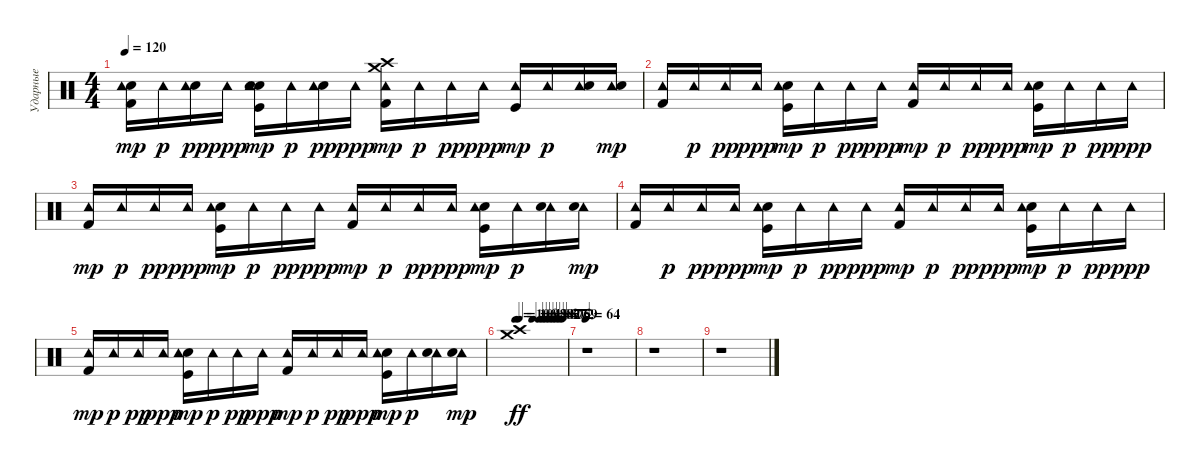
\track ("Ударные" "Ударные") {instrument percussion}
\staff {score}
\articulation defaults
\ts (4 4)
\tempo 120
\clef neutral
\ks c
("Electric Snare (hit)" "Kick (hit) 2" "Tambourine (hit)").16{dy mp} "Tambourine (hit)".16{dy p} ("Electric Snare (hit)" "Tambourine (hit)").16{dy pp} "Tambourine (hit)".16{dy ppp} ("Electric Snare (hit)" "Kick (hit)" "Snare (hit) 2" "Tambourine (hit)").16{dy mp} "Tambourine (hit)".16{dy p} ("Electric Snare (hit)" "Tambourine (hit)").16{dy pp} "Tambourine (hit)".16{dy ppp} ("Crash medium (hit)" "Crash high (hit)" "Kick (hit) 2" "Tambourine (hit)").16{dy mp} "Tambourine (hit)".16{dy p} "Tambourine (hit)".16{dy pp} "Tambourine (hit)".16{dy ppp} ("Kick (hit)" "Tambourine (hit)").16{dy mp} "Tambourine (hit)".16{dy p} ("Tambourine (hit)" "Electric Snare (hit)").16 ("Tambourine (hit)" "Electric Snare (hit)").16{dy mp} |
("Kick (hit) 2" "Tambourine (hit)").16 "Tambourine (hit)".16{dy p} "Tambourine (hit)".16{dy pp} "Tambourine (hit)".16{dy ppp} ("Kick (hit)" "Snare (hit) 2" "Tambourine (hit)").16{dy mp} "Tambourine (hit)".16{dy p} "Tambourine (hit)".16{dy pp} "Tambourine (hit)".16{dy ppp} ("Kick (hit) 2" "Tambourine (hit)").16{dy mp} "Tambourine (hit)".16{dy p} "Tambourine (hit)".16{dy pp} "Tambourine (hit)".16{dy ppp} ("Kick (hit)" "Snare (hit) 2" "Tambourine (hit)").16{dy mp} "Tambourine (hit)".16{dy p} "Tambourine (hit)".16{dy pp} "Tambourine (hit)".16{dy ppp} |
("Kick (hit) 2" "Tambourine (hit)").16{dy mp} "Tambourine (hit)".16{dy p} "Tambourine (hit)".16{dy pp} "Tambourine (hit)".16{dy ppp} ("Kick (hit)" "Snare (hit) 2" "Tambourine (hit)").16{dy mp} "Tambourine (hit)".16{dy p} "Tambourine (hit)".16{dy pp} "Tambourine (hit)".16{dy ppp} ("Kick (hit) 2" "Tambourine (hit)").16{dy mp} "Tambourine (hit)".16{dy p} "Tambourine (hit)".16{dy pp} "Tambourine (hit)".16{dy ppp} ("Kick (hit)" "Snare (hit) 2" "Tambourine (hit)").16{dy mp} "Tambourine (hit)".16{dy p} ("Tambourine (hit)" "Electric Snare (hit)").16 ("Tambourine (hit)" "Electric Snare (hit)").16{dy mp} |
("Kick (hit) 2" "Tambourine (hit)").16 "Tambourine (hit)".16{dy p} "Tambourine (hit)".16{dy pp} "Tambourine (hit)".16{dy ppp} ("Kick (hit)" "Snare (hit) 2" "Tambourine (hit)").16{dy mp} "Tambourine (hit)".16{dy p} "Tambourine (hit)".16{dy pp} "Tambourine (hit)".16{dy ppp} ("Kick (hit) 2" "Tambourine (hit)").16{dy mp} "Tambourine (hit)".16{dy p} "Tambourine (hit)".16{dy pp} "Tambourine (hit)".16{dy ppp} ("Kick (hit)" "Snare (hit) 2" "Tambourine (hit)").16{dy mp} "Tambourine (hit)".16{dy p} "Tambourine (hit)".16{dy pp} "Tambourine (hit)".16{dy ppp} |
("Kick (hit) 2" "Tambourine (hit)").16{dy mp} "Tambourine (hit)".16{dy p} "Tambourine (hit)".16{dy pp} "Tambourine (hit)".16{dy ppp} ("Kick (hit)" "Snare (hit) 2" "Tambourine (hit)").16{dy mp} "Tambourine (hit)".16{dy p} "Tambourine (hit)".16{dy pp} "Tambourine (hit)".16{dy ppp} ("Kick (hit) 2" "Tambourine (hit)").16{dy mp} "Tambourine (hit)".16{dy p} "Tambourine (hit)".16{dy pp} "Tambourine (hit)".16{dy ppp} ("Kick (hit)" "Snare (hit) 2" "Tambourine (hit)").16{dy mp} "Tambourine (hit)".16{dy p} ("Tambourine (hit)" "Electric Snare (hit)").16 ("Tambourine (hit)" "Electric Snare (hit)").16{dy mp} |
\tempo (106 0.0625)
\tempo (104 0.125)
\tempo (93 0.375)
\tempo (88 0.5)
\tempo (86 0.5625)
\tempo (82 0.625)
\tempo (80 0.6875)
\tempo (77 0.75)
\tempo (75 0.8125)
\tempo (72 0.875)
\tempo (69 0.9375)
("Crash medium (hit)" "Crash high (hit)").1{dy ff} |
\tempo 64
r.1 |
r.1 |
r.1
